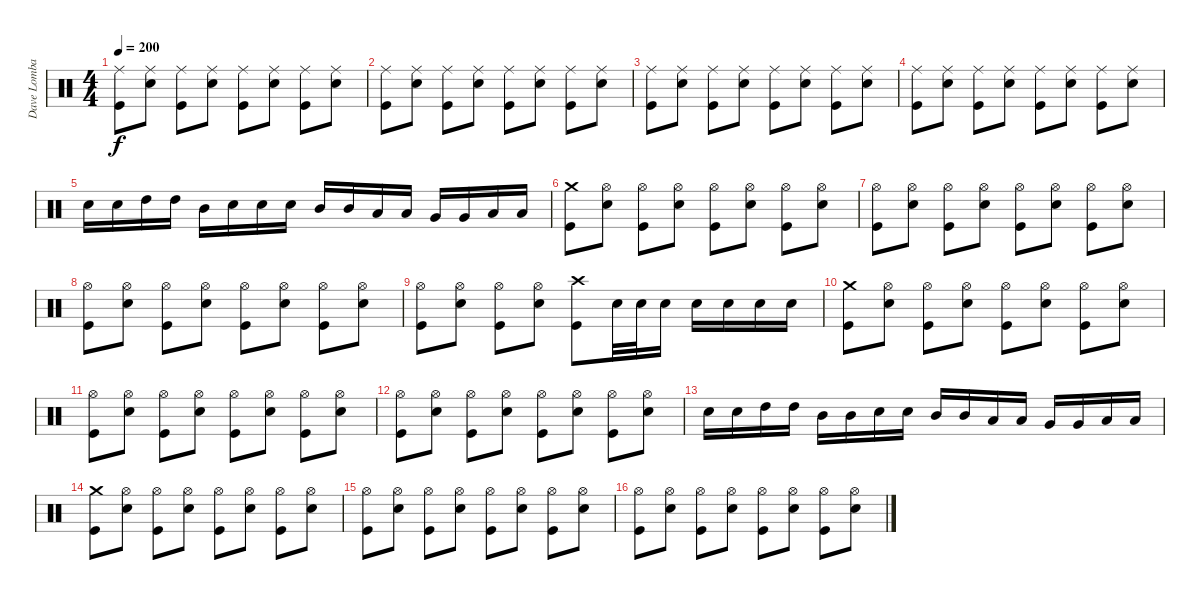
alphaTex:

\track ("Dave Lombardo" "Dave Lomba") {instrument percussion}
\staff {score}
\articulation defaults
\ts (4 4)
\tempo 200
\clef neutral
\ks c
("Ride (middle)" "Kick (hit)").8{dy f} ("Ride (middle)" "Snare (hit) 2").8 ("Ride (middle)" "Kick (hit)").8 ("Ride (middle)" "Snare (hit) 2").8 ("Ride (middle)" "Kick (hit)").8 ("Ride (middle)" "Snare (hit) 2").8 ("Ride (middle)" "Kick (hit)").8 ("Ride (middle)" "Snare (hit) 2").8 |
("Ride (middle)" "Kick (hit)").8 ("Ride (middle)" "Snare (hit) 2").8 ("Ride (middle)" "Kick (hit)").8 ("Ride (middle)" "Snare (hit) 2").8 ("Ride (middle)" "Kick (hit)").8 ("Ride (middle)" "Snare (hit) 2").8 ("Ride (middle)" "Kick (hit)").8 ("Ride (middle)" "Snare (hit) 2").8 |
("Ride (middle)" "Kick (hit)").8 ("Ride (middle)" "Snare (hit) 2").8 ("Ride (middle)" "Kick (hit)").8 ("Ride (middle)" "Snare (hit) 2").8 ("Ride (middle)" "Kick (hit)").8 ("Ride (middle)" "Snare (hit) 2").8 ("Ride (middle)" "Kick (hit)").8 ("Ride (middle)" "Snare (hit) 2").8 |
("Ride (middle)" "Kick (hit)").8 ("Ride (middle)" "Snare (hit) 2").8 ("Ride (middle)" "Kick (hit)").8 ("Ride (middle)" "Snare (hit) 2").8 ("Ride (middle)" "Kick (hit)").8 ("Ride (middle)" "Snare (hit) 2").8 ("Ride (middle)" "Kick (hit)").8 ("Ride (middle)" "Snare (hit) 2").8 |
"Snare (hit) 2".16 "Snare (hit) 2".16 "High Tom (hit)".16 "High Tom (hit)".16 "Mid Tom (hit)".16 "Snare (hit) 2".16 "Snare (hit) 2".16 "Snare (hit) 2".16 "Mid Tom (hit)".16 "Mid Tom (hit)".16 "Low Tom (hit)".16 "Low Tom (hit)".16 "Very Low Tom (hit)".16 "Very Low Tom (hit)".16 "Low Floor Tom (hit)".16 "Low Floor Tom (hit)".16 |
("Crash medium (hit)" "Kick (hit)").8 ("Hi-Hat (open)" "Snare (hit) 2").8 ("Hi-Hat (open)" "Kick (hit)").8 ("Hi-Hat (open)" "Snare (hit) 2").8 ("Hi-Hat (open)" "Kick (hit)").8 ("Hi-Hat (open)" "Snare (hit) 2").8 ("Hi-Hat (open)" "Kick (hit)").8 ("Hi-Hat (open)" "Snare (hit) 2").8 |
("Hi-Hat (open)" "Kick (hit)").8 ("Hi-Hat (open)" "Snare (hit) 2").8 ("Hi-Hat (open)" "Kick (hit)").8 ("Hi-Hat (open)" "Snare (hit) 2").8 ("Hi-Hat (open)" "Kick (hit)").8 ("Hi-Hat (open)" "Snare (hit) 2").8 ("Hi-Hat (open)" "Kick (hit)").8 ("Hi-Hat (open)" "Snare (hit) 2").8 |
("Hi-Hat (open)" "Kick (hit)").8 ("Hi-Hat (open)" "Snare (hit) 2").8 ("Hi-Hat (open)" "Kick (hit)").8 ("Hi-Hat (open)" "Snare (hit) 2").8 ("Hi-Hat (open)" "Kick (hit)").8 ("Hi-Hat (open)" "Snare (hit) 2").8 ("Hi-Hat (open)" "Kick (hit)").8 ("Hi-Hat (open)" "Snare (hit) 2").8 |
("Hi-Hat (open)" "Kick (hit)").8 ("Hi-Hat (open)" "Snare (hit) 2").8 ("Hi-Hat (open)" "Kick (hit)").8 ("Hi-Hat (open)" "Snare (hit) 2").8 ("Crash high (hit)" "Kick (hit)").8 "Snare (hit) 2".32 "Snare (hit) 2".32 "Snare (hit) 2".16 "Snare (hit) 2".16 "Snare (hit) 2".16 "Snare (hit) 2".16 "Snare (hit) 2".16 |
("Crash medium (hit)" "Kick (hit)").8 ("Hi-Hat (open)" "Snare (hit) 2").8 ("Hi-Hat (open)" "Kick (hit)").8 ("Hi-Hat (open)" "Snare (hit) 2").8 ("Hi-Hat (open)" "Kick (hit)").8 ("Hi-Hat (open)" "Snare (hit) 2").8 ("Hi-Hat (open)" "Kick (hit)").8 ("Hi-Hat (open)" "Snare (hit) 2").8 |
("Hi-Hat (open)" "Kick (hit)").8 ("Hi-Hat (open)" "Snare (hit) 2").8 ("Hi-Hat (open)" "Kick (hit)").8 ("Hi-Hat (open)" "Snare (hit) 2").8 ("Hi-Hat (open)" "Kick (hit)").8 ("Hi-Hat (open)" "Snare (hit) 2").8 ("Hi-Hat (open)" "Kick (hit)").8 ("Hi-Hat (open)" "Snare (hit) 2").8 |
("Hi-Hat (open)" "Kick (hit)").8 ("Hi-Hat (open)" "Snare (hit) 2").8 ("Hi-Hat (open)" "Kick (hit)").8 ("Hi-Hat (open)" "Snare (hit) 2").8 ("Hi-Hat (open)" "Kick (hit)").8 ("Hi-Hat (open)" "Snare (hit) 2").8 ("Hi-Hat (open)" "Kick (hit)").8 ("Hi-Hat (open)" "Snare (hit) 2").8 |
"Snare (hit) 2".16 "Snare (hit) 2".16 "High Tom (hit)".16 "High Tom (hit)".16 "Mid Tom (hit)".16 "Mid Tom (hit)".16 "Snare (hit) 2".16 "Snare (hit) 2".16 "Mid Tom (hit)".16 "Mid Tom (hit)".16 "Low Tom (hit)".16 "Low Tom (hit)".16 "Very Low Tom (hit)".16 "Very Low Tom (hit)".16 "Low Floor Tom (hit)".16 "Low Floor Tom (hit)".16 |
("Crash medium (hit)" "Kick (hit)").8 ("Hi-Hat (open)" "Snare (hit) 2").8 ("Hi-Hat (open)" "Kick (hit)").8 ("Hi-Hat (open)" "Snare (hit) 2").8 ("Hi-Hat (open)" "Kick (hit)").8 ("Hi-Hat (open)" "Snare (hit) 2").8 ("Hi-Hat (open)" "Kick (hit)").8 ("Hi-Hat (open)" "Snare (hit) 2").8 |
("Hi-Hat (open)" "Kick (hit)").8 ("Hi-Hat (open)" "Snare (hit) 2").8 ("Hi-Hat (open)" "Kick (hit)").8 ("Hi-Hat (open)" "Snare (hit) 2").8 ("Hi-Hat (open)" "Kick (hit)").8 ("Hi-Hat (open)" "Snare (hit) 2").8 ("Hi-Hat (open)" "Kick (hit)").8 ("Hi-Hat (open)" "Snare (hit) 2").8 |
("Hi-Hat (open)" "Kick (hit)").8 ("Hi-Hat (open)" "Snare (hit) 2").8 ("Hi-Hat (open)" "Kick (hit)").8 ("Hi-Hat (open)" "Snare (hit) 2").8 ("Hi-Hat (open)" "Kick (hit)").8 ("Hi-Hat (open)" "Snare (hit) 2").8 ("Hi-Hat (open)" "Kick (hit)").8 ("Hi-Hat (open)" "Snare (hit) 2").8
